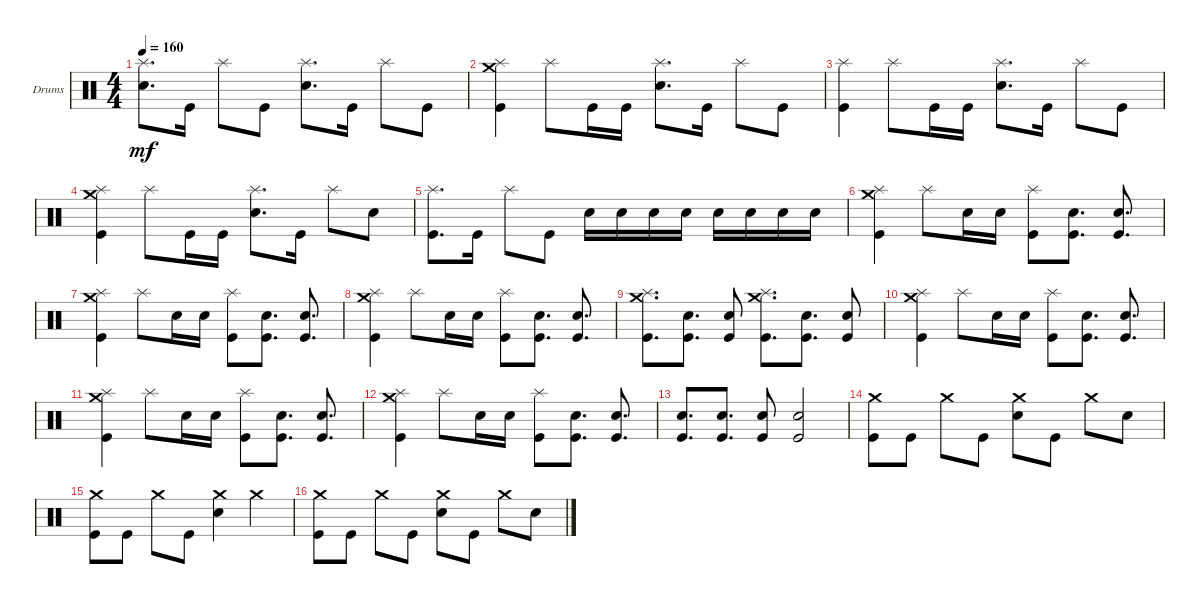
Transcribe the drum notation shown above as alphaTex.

\bracketExtendMode groupsimilarinstruments
\firstSystemTrackNameOrientation horizontal
\otherSystemsTrackNameOrientation horizontal
\track ("Drums" "Drums") {instrument percussion}
\staff {score}
\articulation defaults
\ts (4 4)
\tempo 160
\clef neutral
\ks c
("Snare (hit) 2" "Splash (hit)").8{d dy mf} "Kick (hit)".16 "Splash (hit)".8 "Kick (hit)".8 ("Snare (hit) 2" "Splash (hit)").8{d} "Kick (hit)".16 "Splash (hit)".8 "Kick (hit)".8 |
("Kick (hit)" "Splash (hit)" "Crash medium (hit)").4 "Splash (hit)".8 "Kick (hit)".16 "Kick (hit)".16 ("Snare (hit) 2" "Splash (hit)").8{d} "Kick (hit)".16 "Splash (hit)".8 "Kick (hit)".8 |
("Kick (hit)" "Splash (hit)").4 "Splash (hit)".8 "Kick (hit)".16 "Kick (hit)".16 ("Snare (hit) 2" "Splash (hit)").8{d} "Kick (hit)".16 "Splash (hit)".8 "Kick (hit)".8 |
("Kick (hit)" "Splash (hit)" "Crash medium (hit)").4 "Splash (hit)".8 "Kick (hit)".16 "Kick (hit)".16 ("Snare (hit) 2" "Splash (hit)").8{d} "Kick (hit)".16 "Splash (hit)".8 "Snare (hit) 2".8 |
("Kick (hit)" "Splash (hit)").8{d} "Kick (hit)".16 "Splash (hit)".8 "Kick (hit)".8 "Snare (hit) 2".16 "Snare (hit) 2".16 "Snare (hit) 2".16 "Snare (hit) 2".16 "Snare (hit) 2".16 "Snare (hit) 2".16 "Snare (hit) 2".16 "Snare (hit) 2".16 |
("Kick (hit)" "Splash (hit)" "Crash medium (hit)").4 "Splash (hit)".8 "Snare (hit) 2".16 "Snare (hit) 2".16 ("Kick (hit)" "Splash (hit)").8 ("Kick (hit)" "Snare (hit) 2").8{d} ("Kick (hit)" "Snare (hit) 2").8{d} |
("Kick (hit)" "Splash (hit)" "Crash medium (hit)").4 "Splash (hit)".8 "Snare (hit) 2".16 "Snare (hit) 2".16 ("Kick (hit)" "Splash (hit)").8 ("Kick (hit)" "Snare (hit) 2").8{d} ("Kick (hit)" "Snare (hit) 2").8{d} |
("Kick (hit)" "Splash (hit)" "Crash medium (hit)").4 "Splash (hit)".8 "Snare (hit) 2".16 "Snare (hit) 2".16 ("Kick (hit)" "Splash (hit)").8 ("Kick (hit)" "Snare (hit) 2").8{d} ("Kick (hit)" "Snare (hit) 2").8{d} |
("Kick (hit)" "Splash (hit)" "Crash medium (hit)").8{d} ("Kick (hit)" "Snare (hit) 2").8{d} ("Kick (hit)" "Snare (hit) 2").8 ("Kick (hit)" "Splash (hit)" "Crash medium (hit)").8{d} ("Kick (hit)" "Snare (hit) 2").8{d} ("Kick (hit)" "Snare (hit) 2").8 |
("Kick (hit)" "Splash (hit)" "Crash medium (hit)").4 "Splash (hit)".8 "Snare (hit) 2".16 "Snare (hit) 2".16 ("Kick (hit)" "Splash (hit)").8 ("Kick (hit)" "Snare (hit) 2").8{d} ("Kick (hit)" "Snare (hit) 2").8{d} |
("Kick (hit)" "Splash (hit)" "Crash medium (hit)").4 "Splash (hit)".8 "Snare (hit) 2".16 "Snare (hit) 2".16 ("Kick (hit)" "Splash (hit)").8 ("Kick (hit)" "Snare (hit) 2").8{d} ("Kick (hit)" "Snare (hit) 2").8{d} |
("Kick (hit)" "Splash (hit)" "Crash medium (hit)").4 "Splash (hit)".8 "Snare (hit) 2".16 "Snare (hit) 2".16 ("Kick (hit)" "Splash (hit)").8 ("Kick (hit)" "Snare (hit) 2").8{d} ("Kick (hit)" "Snare (hit) 2").8{d} |
("Kick (hit)" "Snare (hit) 2").8{d} ("Kick (hit)" "Snare (hit) 2").8{d} ("Kick (hit)" "Snare (hit) 2").8 ("Kick (hit)" "Snare (hit) 2").2 |
("Kick (hit)" "Crash medium (hit)").8 "Kick (hit)".8 "Crash medium (hit)".8 "Kick (hit)".8 ("Snare (hit) 2" "Crash medium (hit)").8 "Kick (hit)".8 "Crash medium (hit)".8 "Snare (hit) 2".8 |
("Kick (hit)" "Crash medium (hit)").8 "Kick (hit)".8 "Crash medium (hit)".8 "Kick (hit)".8 ("Snare (hit) 2" "Crash medium (hit)").4 "Crash medium (hit)".4 |
("Kick (hit)" "Crash medium (hit)").8 "Kick (hit)".8 "Crash medium (hit)".8 "Kick (hit)".8 ("Snare (hit) 2" "Crash medium (hit)").8 "Kick (hit)".8 "Crash medium (hit)".8 "Snare (hit) 2".8
